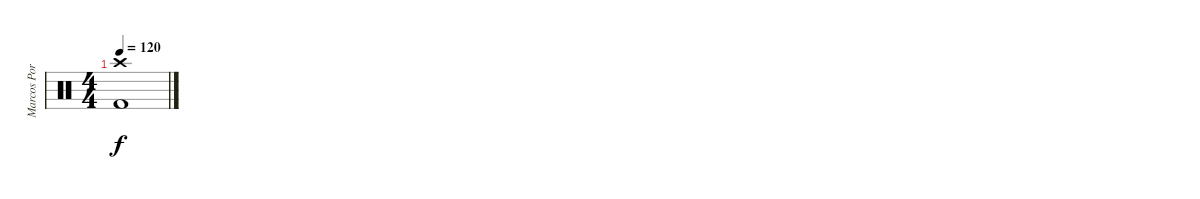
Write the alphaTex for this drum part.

\track ("Marcos Portinol" "Marcos Por") {instrument percussion}
\staff {score}
\articulation defaults
\ts (4 4)
\tempo 120
\clef neutral
\ks c
("Kick (hit) 2" "Crash high (hit)").1{dy f}
